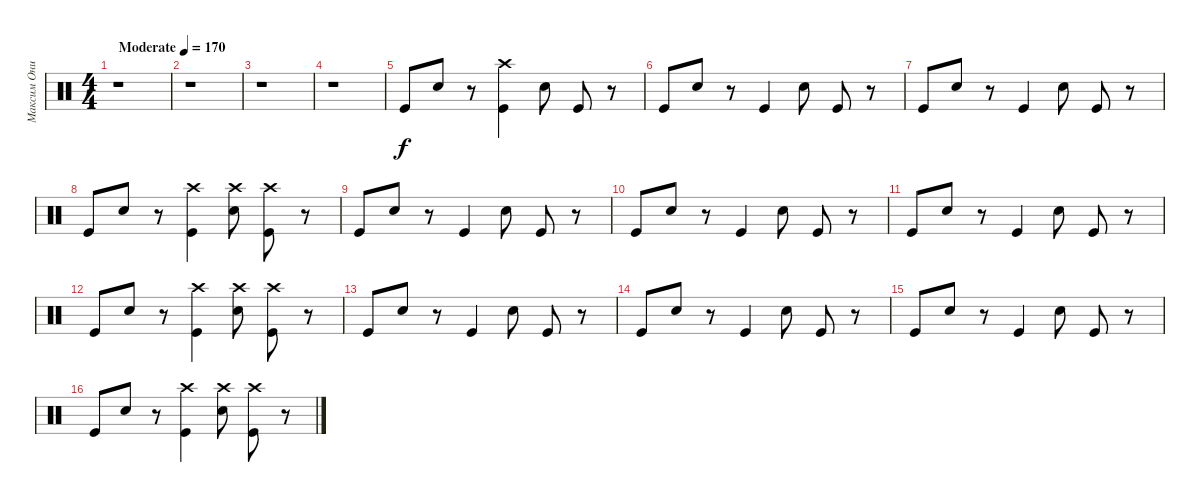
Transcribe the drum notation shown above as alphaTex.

\track ("Максим Онищенко" "Максим Они") {instrument percussion}
\staff {score}
\articulation defaults
\ts (4 4)
\tempo (170 "Moderate")
\clef neutral
\ks c
r.1{dy f} |
r.1 |
r.1 |
r.1 |
"Kick (hit)".8 "Snare (hit) 2".8 r.8 ("Kick (hit)" "Crash high (hit)").4 "Snare (hit) 2".8 "Kick (hit)".8 r.8 |
"Kick (hit)".8 "Snare (hit) 2".8 r.8 "Kick (hit)".4 "Snare (hit) 2".8 "Kick (hit)".8 r.8 |
"Kick (hit)".8 "Snare (hit) 2".8 r.8 "Kick (hit)".4 "Snare (hit) 2".8 "Kick (hit)".8 r.8 |
"Kick (hit)".8 "Snare (hit) 2".8 r.8 ("Kick (hit)" "Crash high (hit)").4 ("Snare (hit) 2" "Crash high (hit)").8 ("Kick (hit)" "Crash high (hit)").8 r.8 |
"Kick (hit)".8 "Snare (hit) 2".8 r.8 "Kick (hit)".4 "Snare (hit) 2".8 "Kick (hit)".8 r.8 |
"Kick (hit)".8 "Snare (hit) 2".8 r.8 "Kick (hit)".4 "Snare (hit) 2".8 "Kick (hit)".8 r.8 |
"Kick (hit)".8 "Snare (hit) 2".8 r.8 "Kick (hit)".4 "Snare (hit) 2".8 "Kick (hit)".8 r.8 |
"Kick (hit)".8 "Snare (hit) 2".8 r.8 ("Kick (hit)" "Crash high (hit)").4 ("Snare (hit) 2" "Crash high (hit)").8 ("Kick (hit)" "Crash high (hit)").8 r.8 |
"Kick (hit)".8 "Snare (hit) 2".8 r.8 "Kick (hit)".4 "Snare (hit) 2".8 "Kick (hit)".8 r.8 |
"Kick (hit)".8 "Snare (hit) 2".8 r.8 "Kick (hit)".4 "Snare (hit) 2".8 "Kick (hit)".8 r.8 |
"Kick (hit)".8 "Snare (hit) 2".8 r.8 "Kick (hit)".4 "Snare (hit) 2".8 "Kick (hit)".8 r.8 |
"Kick (hit)".8 "Snare (hit) 2".8 r.8 ("Kick (hit)" "Crash high (hit)").4 ("Snare (hit) 2" "Crash high (hit)").8 ("Kick (hit)" "Crash high (hit)").8 r.8
